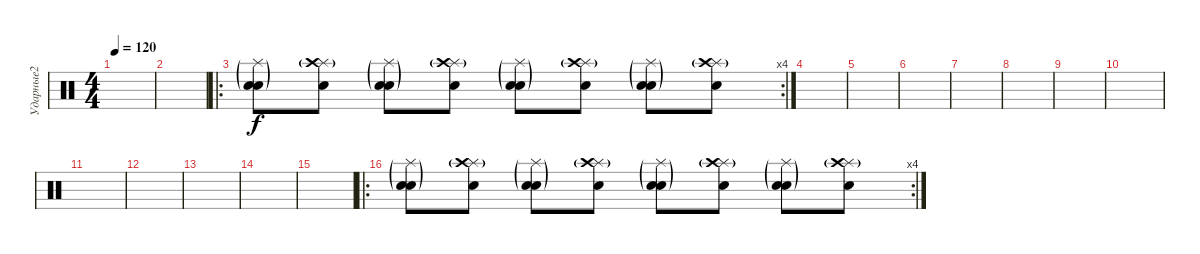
\track ("Ударные2" "Ударные2") {instrument percussion bank 2}
\staff {score}
\articulation defaults
\ts (4 4)
\tempo 120
\clef neutral
\ks c
|
|
\ro
\rc 4
("Splash (hit)"{g} "Snare (hit)"{g} "Snare (hit)").8 ("Splash (hit)"{g} "Crash high (hit)"{g} "Snare (hit)").8 ("Splash (hit)"{g} "Snare (hit)"{g} "Snare (hit)").8 ("Splash (hit)"{g} "Crash high (hit)"{g} "Snare (hit)").8 ("Splash (hit)"{g} "Snare (hit)"{g} "Snare (hit)").8 ("Splash (hit)"{g} "Crash high (hit)"{g} "Snare (hit)").8 ("Splash (hit)"{g} "Snare (hit)"{g} "Snare (hit)").8 ("Splash (hit)"{g} "Crash high (hit)"{g} "Snare (hit)").8 |
|
|
|
|
|
|
|
|
|
|
|
|
\ro
\rc 4
("Splash (hit)"{g} "Snare (hit)"{g} "Snare (hit)").8 ("Splash (hit)"{g} "Crash high (hit)"{g} "Snare (hit)").8 ("Splash (hit)"{g} "Snare (hit)"{g} "Snare (hit)").8 ("Splash (hit)"{g} "Crash high (hit)"{g} "Snare (hit)").8 ("Splash (hit)"{g} "Snare (hit)"{g} "Snare (hit)").8 ("Splash (hit)"{g} "Crash high (hit)"{g} "Snare (hit)").8 ("Splash (hit)"{g} "Snare (hit)"{g} "Snare (hit)").8 ("Splash (hit)"{g} "Crash high (hit)"{g} "Snare (hit)").8
